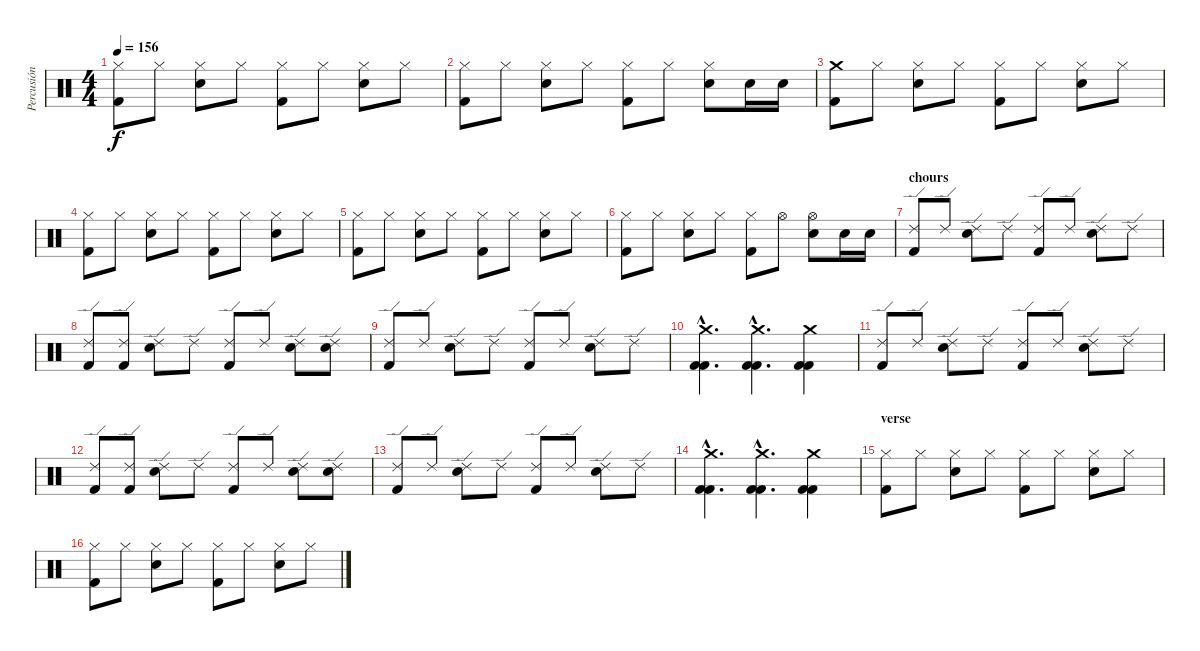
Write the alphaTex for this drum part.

\track ("Percusión" "Percusión") {instrument percussion}
\staff {score}
\articulation defaults
\ts (4 4)
\tempo 156
\clef neutral
\ks c
("Hi-Hat (closed)" "Kick (hit) 2").8{dy f} "Hi-Hat (closed)".8 ("Hi-Hat (closed)" "Electric Snare (hit)").8 "Hi-Hat (closed)".8 ("Hi-Hat (closed)" "Kick (hit) 2").8 "Hi-Hat (closed)".8 ("Hi-Hat (closed)" "Electric Snare (hit)").8 "Hi-Hat (closed)".8 |
("Hi-Hat (closed)" "Kick (hit) 2").8 "Hi-Hat (closed)".8 ("Hi-Hat (closed)" "Electric Snare (hit)").8 "Hi-Hat (closed)".8 ("Hi-Hat (closed)" "Kick (hit) 2").8 "Hi-Hat (closed)".8 ("Hi-Hat (closed)" "Electric Snare (hit)").8 "Electric Snare (hit)".16 "Electric Snare (hit)".16 |
("Crash medium (hit)" "Kick (hit) 2").8 "Hi-Hat (closed)".8 ("Hi-Hat (closed)" "Electric Snare (hit)").8 "Hi-Hat (closed)".8 ("Hi-Hat (closed)" "Kick (hit) 2").8 "Hi-Hat (closed)".8 ("Hi-Hat (closed)" "Electric Snare (hit)").8 "Hi-Hat (closed)".8 |
("Hi-Hat (closed)" "Kick (hit) 2").8 "Hi-Hat (closed)".8 ("Hi-Hat (closed)" "Electric Snare (hit)").8 "Hi-Hat (closed)".8 ("Hi-Hat (closed)" "Kick (hit) 2").8 "Hi-Hat (closed)".8 ("Hi-Hat (closed)" "Electric Snare (hit)").8 "Hi-Hat (closed)".8 |
("Hi-Hat (closed)" "Kick (hit) 2").8 "Hi-Hat (closed)".8 ("Hi-Hat (closed)" "Electric Snare (hit)").8 "Hi-Hat (closed)".8 ("Hi-Hat (closed)" "Kick (hit) 2").8 "Hi-Hat (closed)".8 ("Hi-Hat (closed)" "Electric Snare (hit)").8 "Hi-Hat (closed)".8 |
("Hi-Hat (closed)" "Kick (hit) 2").8 "Hi-Hat (closed)".8 ("Hi-Hat (closed)" "Electric Snare (hit)").8 "Hi-Hat (closed)".8 ("Hi-Hat (closed)" "Kick (hit) 2").8 "Hi-Hat (open)".8 ("Hi-Hat (open)" "Electric Snare (hit)").8 "Electric Snare (hit)".16 "Electric Snare (hit)".16 |
\section ("" "chours")
("Ride (edge) 2" "Kick (hit) 2").8 "Ride (edge) 2".8 ("Ride (edge) 2" "Electric Snare (hit)").8 "Ride (edge) 2".8 ("Ride (edge) 2" "Kick (hit) 2").8 "Ride (edge) 2".8 ("Ride (edge) 2" "Electric Snare (hit)").8 "Ride (edge) 2".8 |
("Ride (edge) 2" "Kick (hit) 2").8 ("Ride (edge) 2" "Kick (hit) 2").8 ("Ride (edge) 2" "Electric Snare (hit)").8 "Ride (edge) 2".8 ("Ride (edge) 2" "Kick (hit) 2").8 "Ride (edge) 2".8 ("Ride (edge) 2" "Electric Snare (hit)").8 ("Ride (edge) 2" "Electric Snare (hit)").8 |
("Ride (edge) 2" "Kick (hit) 2").8 "Ride (edge) 2".8 ("Ride (edge) 2" "Electric Snare (hit)").8 "Ride (edge) 2".8 ("Ride (edge) 2" "Kick (hit) 2").8 "Ride (edge) 2".8 ("Ride (edge) 2" "Electric Snare (hit)").8 "Ride (edge) 2".8 |
("Crash medium (hit)"{hac} "Kick (hit) 2"{hac} "Kick (hit) 2"{hac}).4{d} ("Crash medium (hit)"{hac} "Kick (hit) 2"{hac} "Kick (hit) 2"{hac}).4{d} ("Crash medium (hit)" "Kick (hit) 2" "Kick (hit) 2").4 |
("Ride (edge) 2" "Kick (hit) 2").8 "Ride (edge) 2".8 ("Ride (edge) 2" "Electric Snare (hit)").8 "Ride (edge) 2".8 ("Ride (edge) 2" "Kick (hit) 2").8 "Ride (edge) 2".8 ("Ride (edge) 2" "Electric Snare (hit)").8 "Ride (edge) 2".8 |
("Ride (edge) 2" "Kick (hit) 2").8 ("Ride (edge) 2" "Kick (hit) 2").8 ("Ride (edge) 2" "Electric Snare (hit)").8 "Ride (edge) 2".8 ("Ride (edge) 2" "Kick (hit) 2").8 "Ride (edge) 2".8 ("Ride (edge) 2" "Electric Snare (hit)").8 ("Ride (edge) 2" "Electric Snare (hit)").8 |
("Ride (edge) 2" "Kick (hit) 2").8 "Ride (edge) 2".8 ("Ride (edge) 2" "Electric Snare (hit)").8 "Ride (edge) 2".8 ("Ride (edge) 2" "Kick (hit) 2").8 "Ride (edge) 2".8 ("Ride (edge) 2" "Electric Snare (hit)").8 "Ride (edge) 2".8 |
("Crash medium (hit)"{hac} "Kick (hit) 2"{hac} "Kick (hit) 2"{hac}).4{d} ("Crash medium (hit)"{hac} "Kick (hit) 2"{hac} "Kick (hit) 2"{hac}).4{d} ("Crash medium (hit)" "Kick (hit) 2" "Kick (hit) 2").4 |
\section ("" "verse")
("Hi-Hat (closed)" "Kick (hit) 2").8 "Hi-Hat (closed)".8 ("Hi-Hat (closed)" "Electric Snare (hit)").8 "Hi-Hat (closed)".8 ("Hi-Hat (closed)" "Kick (hit) 2").8 "Hi-Hat (closed)".8 ("Hi-Hat (closed)" "Electric Snare (hit)").8 "Hi-Hat (closed)".8 |
("Hi-Hat (closed)" "Kick (hit) 2").8 "Hi-Hat (closed)".8 ("Hi-Hat (closed)" "Electric Snare (hit)").8 "Hi-Hat (closed)".8 ("Hi-Hat (closed)" "Kick (hit) 2").8 "Hi-Hat (closed)".8 ("Hi-Hat (closed)" "Electric Snare (hit)").8 "Hi-Hat (closed)".8
